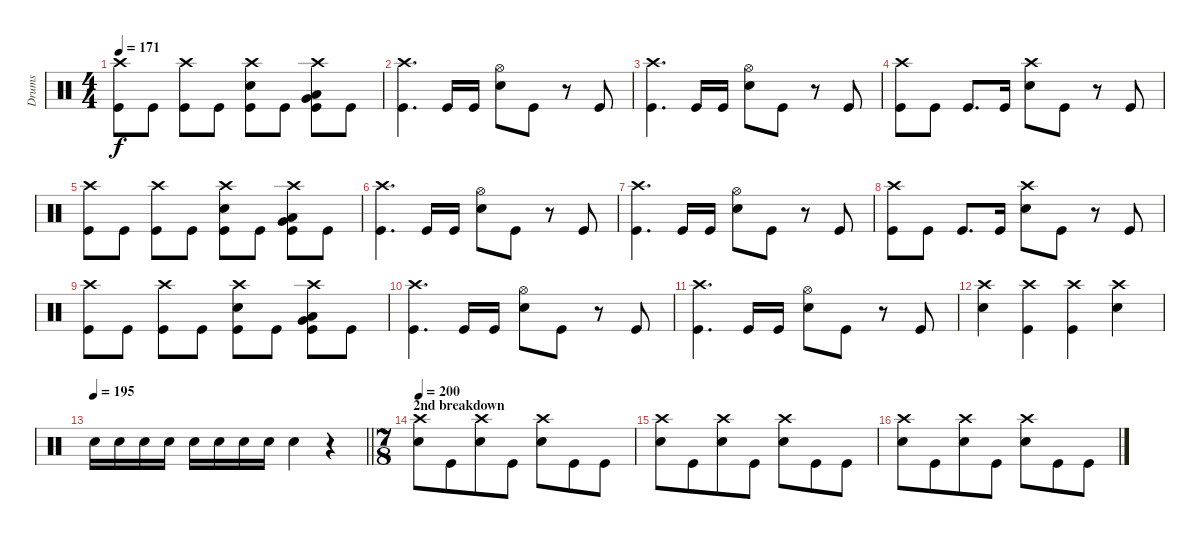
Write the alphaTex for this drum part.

\track ("Drums" "Drums") {instrument percussion}
\staff {score}
\articulation defaults
\ts (4 4)
\tempo 171
\clef neutral
\ks c
("Crash high (hit)" "Kick (hit)").8{dy f} "Kick (hit)".8 ("Crash high (hit)" "Kick (hit)").8 "Kick (hit)".8 ("Crash high (hit)" "Snare (hit) 2" "Kick (hit)").8 "Kick (hit)".8 ("Crash high (hit)" "Low Tom (hit)" "Very Low Tom (hit)" "Kick (hit)").8 "Kick (hit)".8 |
("Crash high (hit)" "Kick (hit)").4{d} "Kick (hit)".16 "Kick (hit)".16 ("Hi-Hat (open)" "Snare (hit) 2").8 "Kick (hit)".8 r.8 "Kick (hit)".8 |
("Crash high (hit)" "Kick (hit)").4{d} "Kick (hit)".16 "Kick (hit)".16 ("Hi-Hat (open)" "Snare (hit) 2").8 "Kick (hit)".8 r.8 "Kick (hit)".8 |
("Crash high (hit)" "Kick (hit)").8 "Kick (hit)".8 "Kick (hit)".8{d} "Kick (hit)".16 ("Crash high (hit)" "Snare (hit) 2").8 "Kick (hit)".8 r.8 "Kick (hit)".8 |
("Crash high (hit)" "Kick (hit)").8 "Kick (hit)".8 ("Crash high (hit)" "Kick (hit)").8 "Kick (hit)".8 ("Crash high (hit)" "Snare (hit) 2" "Kick (hit)").8 "Kick (hit)".8 ("Crash high (hit)" "Low Tom (hit)" "Very Low Tom (hit)" "Kick (hit)").8 "Kick (hit)".8 |
("Crash high (hit)" "Kick (hit)").4{d} "Kick (hit)".16 "Kick (hit)".16 ("Hi-Hat (open)" "Snare (hit) 2").8 "Kick (hit)".8 r.8 "Kick (hit)".8 |
("Crash high (hit)" "Kick (hit)").4{d} "Kick (hit)".16 "Kick (hit)".16 ("Hi-Hat (open)" "Snare (hit) 2").8 "Kick (hit)".8 r.8 "Kick (hit)".8 |
("Crash high (hit)" "Kick (hit)").8 "Kick (hit)".8 "Kick (hit)".8{d} "Kick (hit)".16 ("Crash high (hit)" "Snare (hit) 2").8 "Kick (hit)".8 r.8 "Kick (hit)".8 |
("Crash high (hit)" "Kick (hit)").8 "Kick (hit)".8 ("Crash high (hit)" "Kick (hit)").8 "Kick (hit)".8 ("Crash high (hit)" "Snare (hit) 2" "Kick (hit)").8 "Kick (hit)".8 ("Crash high (hit)" "Low Tom (hit)" "Very Low Tom (hit)" "Kick (hit)").8 "Kick (hit)".8 |
("Crash high (hit)" "Kick (hit)").4{d} "Kick (hit)".16 "Kick (hit)".16 ("Hi-Hat (open)" "Snare (hit) 2").8 "Kick (hit)".8 r.8 "Kick (hit)".8 |
("Crash high (hit)" "Kick (hit)").4{d} "Kick (hit)".16 "Kick (hit)".16 ("Hi-Hat (open)" "Snare (hit) 2").8 "Kick (hit)".8 r.8 "Kick (hit)".8 |
("Crash high (hit)" "Snare (hit) 2").4 ("Crash high (hit)" "Kick (hit)").4 ("Crash high (hit)" "Kick (hit)").4 ("Crash high (hit)" "Snare (hit) 2").4 |
\tempo 195
\barLineRight lightlight "Snare (hit) 2".16 "Snare (hit) 2".16 "Snare (hit) 2".16 "Snare (hit) 2".16 "Snare (hit) 2".16 "Snare (hit) 2".16 "Snare (hit) 2".16 "Snare (hit) 2".16 "Snare (hit) 2".4
r.4 |
\ts (7 8)
\section ("" "2nd breakdown")
\tempo 200
("Crash high (hit)" "Snare (hit) 2").8 "Kick (hit)".8 ("Crash high (hit)" "Snare (hit) 2").8 "Kick (hit)".8 ("Crash high (hit)" "Snare (hit) 2").8 "Kick (hit)".8 "Kick (hit)".8 |
("Crash high (hit)" "Snare (hit) 2").8 "Kick (hit)".8 ("Crash high (hit)" "Snare (hit) 2").8 "Kick (hit)".8 ("Crash high (hit)" "Snare (hit) 2").8 "Kick (hit)".8 "Kick (hit)".8 |
("Crash high (hit)" "Snare (hit) 2").8 "Kick (hit)".8 ("Crash high (hit)" "Snare (hit) 2").8 "Kick (hit)".8 ("Crash high (hit)" "Snare (hit) 2").8 "Kick (hit)".8 "Kick (hit)".8
